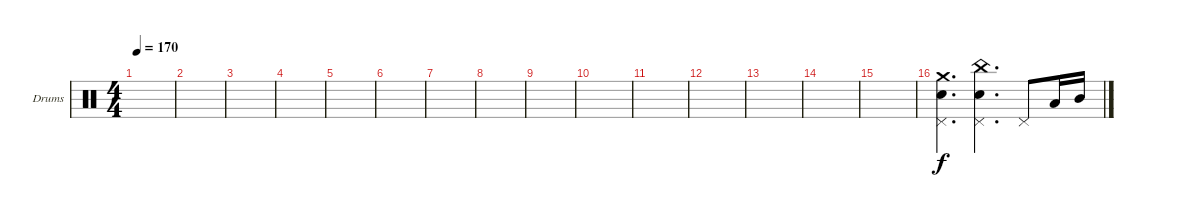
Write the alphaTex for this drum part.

\defaultSystemsLayout 4
\bracketExtendMode groupsimilarinstruments
\firstSystemTrackNameOrientation horizontal
\otherSystemsTrackNameOrientation horizontal
\track ("Drumkit" "Drums") {instrument percussion}
\staff {score}
\articulation defaults
\ts (4 4)
\tempo 170
\clef neutral
\scale
0.474178
\ks c
|
\scale
0.262911 |
\scale
0.262911 |
\scale
0.333333 |
\scale
0.333333 |
\scale
0.333333 |
\scale
0.333333 |
\scale
0.333333 |
\scale
0.333333 |
\scale
0.333333 |
\scale
0.333333 |
\scale
0.333333 |
\scale
0.333333 |
\scale
0.333333 |
\scale
0.333333 |
\scale
0.333333 ("Crash medium (hit)" "Snare (hit) 2" "Pedal Hi-Hat (hit)").4{d} ("Pedal Hi-Hat (hit)" "Snare (hit) 2" "China (hit)").4{d} "Pedal Hi-Hat (hit)".8 "Low Tom (hit)".16 "Mid Tom (hit)".16
